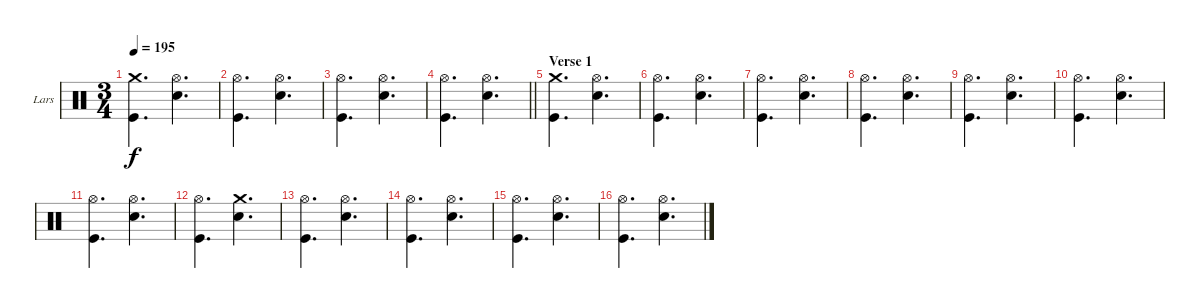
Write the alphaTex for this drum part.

\bracketExtendMode groupsimilarinstruments
\firstSystemTrackNameOrientation horizontal
\otherSystemsTrackNameOrientation horizontal
\track ("Drumkit" "Lars") {instrument percussion}
\staff {score}
\articulation defaults
\ts (3 4)
\tempo 195
\clef neutral
\ks c
("Crash medium (hit)" "Kick (hit)").4{d dy f} ("Hi-Hat (open)" "Snare (hit) 2").4{d} |
("Hi-Hat (open)" "Kick (hit)").4{d} ("Hi-Hat (open)" "Snare (hit) 2").4{d} |
("Hi-Hat (open)" "Kick (hit)").4{d} ("Hi-Hat (open)" "Snare (hit) 2").4{d} |
\barLineRight lightlight
("Hi-Hat (open)" "Kick (hit)").4{d} ("Hi-Hat (open)" "Snare (hit) 2").4{d} |
\section ("" "Verse 1")
("Crash medium (hit)" "Kick (hit)").4{d} ("Hi-Hat (open)" "Snare (hit) 2").4{d} |
("Hi-Hat (open)" "Kick (hit)").4{d} ("Hi-Hat (open)" "Snare (hit) 2").4{d} |
("Hi-Hat (open)" "Kick (hit)").4{d} ("Hi-Hat (open)" "Snare (hit) 2").4{d} |
("Hi-Hat (open)" "Kick (hit)").4{d} ("Hi-Hat (open)" "Snare (hit) 2").4{d} |
("Hi-Hat (open)" "Kick (hit)").4{d} ("Hi-Hat (open)" "Snare (hit) 2").4{d} |
("Hi-Hat (open)" "Kick (hit)").4{d} ("Hi-Hat (open)" "Snare (hit) 2").4{d} |
("Hi-Hat (open)" "Kick (hit)").4{d} ("Hi-Hat (open)" "Snare (hit) 2").4{d} |
("Hi-Hat (open)" "Kick (hit)").4{d} ("Crash medium (hit)" "Snare (hit) 2").4{d} |
("Hi-Hat (open)" "Kick (hit)").4{d} ("Hi-Hat (open)" "Snare (hit) 2").4{d} |
("Hi-Hat (open)" "Kick (hit)").4{d} ("Hi-Hat (open)" "Snare (hit) 2").4{d} |
("Hi-Hat (open)" "Kick (hit)").4{d} ("Hi-Hat (open)" "Snare (hit) 2").4{d} |
("Hi-Hat (open)" "Kick (hit)").4{d} ("Hi-Hat (open)" "Snare (hit) 2").4{d}
